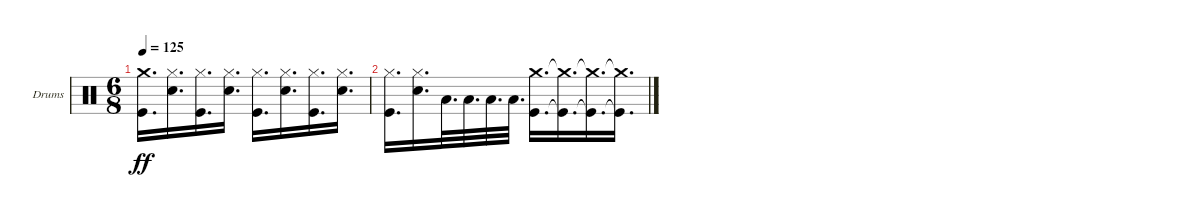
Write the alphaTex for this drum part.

\defaultSystemsLayout 4
\bracketExtendMode groupsimilarinstruments
\firstSystemTrackNameOrientation horizontal
\otherSystemsTrackNameOrientation horizontal
\track ("Drumkit" "Drums") {instrument percussion}
\staff {score}
\articulation defaults
\ts (6 8)
\tempo 125
\clef neutral
\ks c
("Kick (hit)" "Crash medium (hit)").16{d dy ff} ("Snare (hit) 2" "Hi-Hat (closed)").16{d} ("Kick (hit)" "Hi-Hat (closed)").16{d} ("Snare (hit) 2" "Hi-Hat (closed)").16{d} ("Kick (hit)" "Hi-Hat (closed)").16{d} ("Snare (hit) 2" "Hi-Hat (closed)").16{d} ("Kick (hit)" "Hi-Hat (closed)").16{d} ("Snare (hit) 2" "Hi-Hat (closed)").16{d} |
("Kick (hit)" "Hi-Hat (closed)").16{d} ("Snare (hit) 2" "Hi-Hat (closed)").16{d} "Low Tom (hit)".32{d} "Low Tom (hit)".32{d} "Low Tom (hit)".32{d} "Low Tom (hit)".32{d} ("Kick (hit)" "Crash medium (hit)").16{d} ("Kick (hit)"{t} "Crash medium (hit)"{t}).16{d} ("Kick (hit)"{t} "Crash medium (hit)"{t}).16{d} ("Kick (hit)"{t} "Crash medium (hit)"{t}).16{d}
